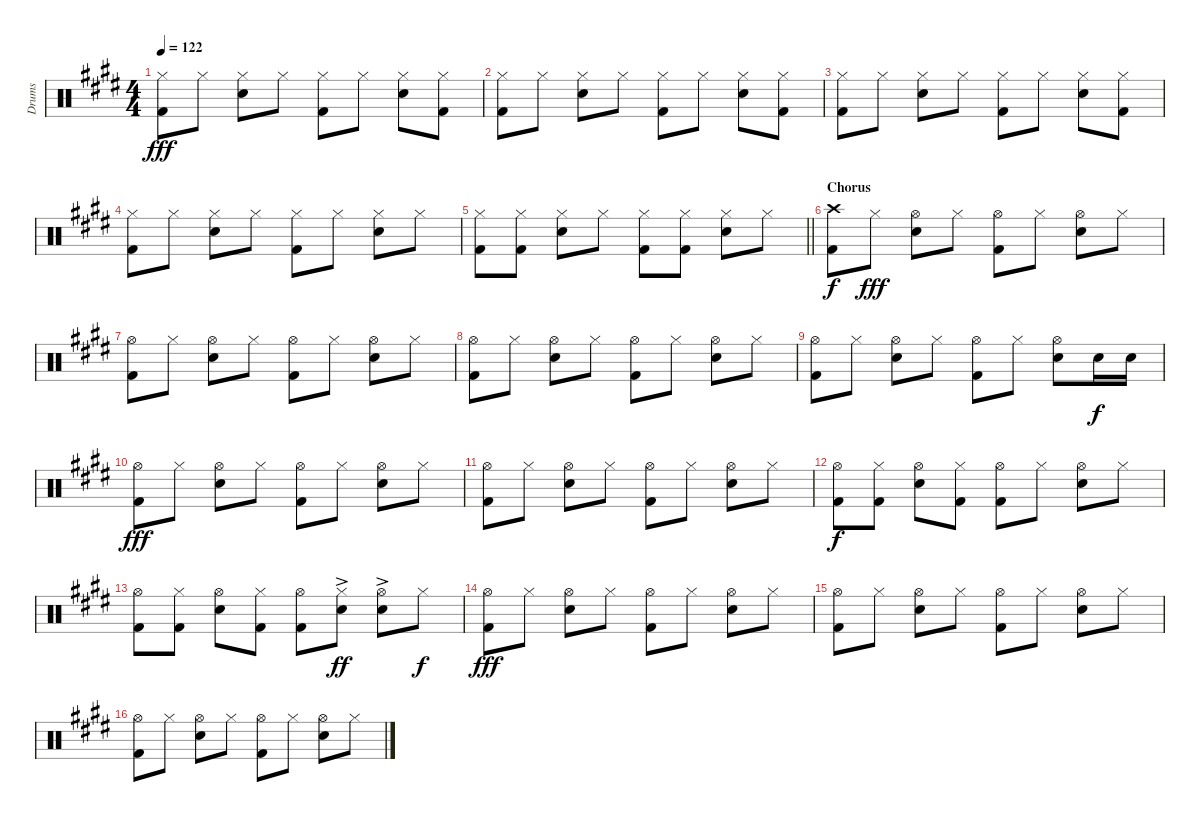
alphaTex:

\track ("Drums" "Drums") {instrument percussion}
\staff {score}
\articulation defaults
\ts (4 4)
\tempo 122
\clef neutral
\ks e
("Hi-Hat (closed)" "Kick (hit) 2").8{dy fff} "Hi-Hat (closed)".8 ("Hi-Hat (closed)" "Electric Snare (hit)").8 "Hi-Hat (closed)".8 ("Hi-Hat (closed)" "Kick (hit) 2").8 "Hi-Hat (closed)".8 ("Hi-Hat (closed)" "Electric Snare (hit)").8 ("Hi-Hat (closed)" "Kick (hit) 2").8 |
("Hi-Hat (closed)" "Kick (hit) 2").8 "Hi-Hat (closed)".8 ("Hi-Hat (closed)" "Electric Snare (hit)").8 "Hi-Hat (closed)".8 ("Hi-Hat (closed)" "Kick (hit) 2").8 "Hi-Hat (closed)".8 ("Hi-Hat (closed)" "Electric Snare (hit)").8 ("Hi-Hat (closed)" "Kick (hit) 2").8 |
("Hi-Hat (closed)" "Kick (hit) 2").8 "Hi-Hat (closed)".8 ("Hi-Hat (closed)" "Electric Snare (hit)").8 "Hi-Hat (closed)".8 ("Hi-Hat (closed)" "Kick (hit) 2").8 "Hi-Hat (closed)".8 ("Hi-Hat (closed)" "Electric Snare (hit)").8 ("Hi-Hat (closed)" "Kick (hit) 2").8 |
("Hi-Hat (closed)" "Kick (hit) 2").8 "Hi-Hat (closed)".8 ("Hi-Hat (closed)" "Electric Snare (hit)").8 "Hi-Hat (closed)".8 ("Hi-Hat (closed)" "Kick (hit) 2").8 "Hi-Hat (closed)".8 ("Hi-Hat (closed)" "Electric Snare (hit)").8 "Hi-Hat (closed)".8 |
\barLineRight lightlight
("Hi-Hat (closed)" "Kick (hit) 2").8 ("Hi-Hat (closed)" "Kick (hit) 2").8 ("Hi-Hat (closed)" "Electric Snare (hit)").8 "Hi-Hat (closed)".8 ("Hi-Hat (closed)" "Kick (hit) 2").8 ("Hi-Hat (closed)" "Kick (hit) 2").8 ("Hi-Hat (closed)" "Electric Snare (hit)").8 "Hi-Hat (closed)".8 |
\section ("" "Chorus")
("Crash high (hit)" "Kick (hit) 2").8{dy f} "Hi-Hat (closed)".8{dy fff} ("Hi-Hat (open)" "Electric Snare (hit)").8 "Hi-Hat (closed)".8 ("Hi-Hat (open)" "Kick (hit) 2").8 "Hi-Hat (closed)".8 ("Hi-Hat (open)" "Electric Snare (hit)").8 "Hi-Hat (closed)".8 |
("Hi-Hat (open)" "Kick (hit) 2").8 "Hi-Hat (closed)".8 ("Hi-Hat (open)" "Electric Snare (hit)").8 "Hi-Hat (closed)".8 ("Hi-Hat (open)" "Kick (hit) 2").8 "Hi-Hat (closed)".8 ("Hi-Hat (open)" "Electric Snare (hit)").8 "Hi-Hat (closed)".8 |
("Hi-Hat (open)" "Kick (hit) 2").8 "Hi-Hat (closed)".8 ("Hi-Hat (open)" "Electric Snare (hit)").8 "Hi-Hat (closed)".8 ("Hi-Hat (open)" "Kick (hit) 2").8 "Hi-Hat (closed)".8 ("Hi-Hat (open)" "Electric Snare (hit)").8 "Hi-Hat (closed)".8 |
("Hi-Hat (open)" "Kick (hit) 2").8 "Hi-Hat (closed)".8 ("Hi-Hat (open)" "Electric Snare (hit)").8 "Hi-Hat (closed)".8 ("Hi-Hat (open)" "Kick (hit) 2").8 "Hi-Hat (closed)".8 ("Hi-Hat (open)" "Electric Snare (hit)").8 "Electric Snare (hit)".16{dy f} "Electric Snare (hit)".16 |
("Hi-Hat (open)" "Kick (hit) 2").8{dy fff} "Hi-Hat (closed)".8 ("Hi-Hat (open)" "Electric Snare (hit)").8 "Hi-Hat (closed)".8 ("Hi-Hat (open)" "Kick (hit) 2").8 "Hi-Hat (closed)".8 ("Hi-Hat (open)" "Electric Snare (hit)").8 "Hi-Hat (closed)".8 |
("Hi-Hat (open)" "Kick (hit) 2").8 "Hi-Hat (closed)".8 ("Hi-Hat (open)" "Electric Snare (hit)").8 "Hi-Hat (closed)".8 ("Hi-Hat (open)" "Kick (hit) 2").8 "Hi-Hat (closed)".8 ("Hi-Hat (open)" "Electric Snare (hit)").8 "Hi-Hat (closed)".8 |
("Hi-Hat (open)" "Kick (hit) 2").8{dy f} ("Hi-Hat (closed)" "Kick (hit) 2").8 ("Hi-Hat (open)" "Electric Snare (hit)").8 ("Hi-Hat (closed)" "Kick (hit) 2").8 ("Hi-Hat (open)" "Kick (hit) 2").8 "Hi-Hat (closed)".8 ("Hi-Hat (open)" "Electric Snare (hit)").8 "Hi-Hat (closed)".8 |
("Hi-Hat (open)" "Kick (hit) 2").8 ("Hi-Hat (closed)" "Kick (hit) 2").8 ("Hi-Hat (open)" "Electric Snare (hit)").8 ("Hi-Hat (closed)" "Kick (hit) 2").8 ("Hi-Hat (open)" "Kick (hit) 2").8 ("Hi-Hat (closed)" "Electric Snare (hit)"{ac}).8{dy ff} ("Hi-Hat (open)" "Electric Snare (hit)"{ac}).8 "Hi-Hat (closed)".8{dy f} |
("Hi-Hat (open)" "Kick (hit) 2").8{dy fff} "Hi-Hat (closed)".8 ("Hi-Hat (open)" "Electric Snare (hit)").8 "Hi-Hat (closed)".8 ("Hi-Hat (open)" "Kick (hit) 2").8 "Hi-Hat (closed)".8 ("Hi-Hat (open)" "Electric Snare (hit)").8 "Hi-Hat (closed)".8 |
("Hi-Hat (open)" "Kick (hit) 2").8 "Hi-Hat (closed)".8 ("Hi-Hat (open)" "Electric Snare (hit)").8 "Hi-Hat (closed)".8 ("Hi-Hat (open)" "Kick (hit) 2").8 "Hi-Hat (closed)".8 ("Hi-Hat (open)" "Electric Snare (hit)").8 "Hi-Hat (closed)".8 |
("Hi-Hat (open)" "Kick (hit) 2").8 "Hi-Hat (closed)".8 ("Hi-Hat (open)" "Electric Snare (hit)").8 "Hi-Hat (closed)".8 ("Hi-Hat (open)" "Kick (hit) 2").8 "Hi-Hat (closed)".8 ("Hi-Hat (open)" "Electric Snare (hit)").8 "Hi-Hat (closed)".8
